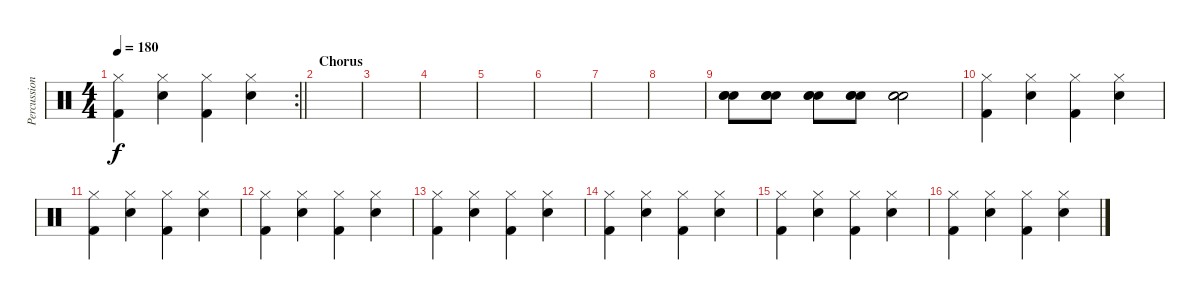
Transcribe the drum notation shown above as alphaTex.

\track ("Percussion" "Percussion") {instrument percussion}
\staff {score}
\articulation defaults
\rc 2
\ts (4 4)
\tempo 180
\clef neutral
\barLineRight lightlight
\ks c
("Hi-Hat (closed)" "Kick (hit) 2").4{dy f} ("Hi-Hat (closed)" "Electric Snare (hit)").4 ("Hi-Hat (closed)" "Kick (hit) 2").4 ("Hi-Hat (closed)" "Electric Snare (hit)").4 |
\section ("" "Chorus")
|
|
|
|
|
|
|
("Electric Snare (hit)" "Electric Snare (hit)" "Electric Snare (hit)").8 ("Electric Snare (hit)" "Electric Snare (hit)" "Electric Snare (hit)").8 ("Electric Snare (hit)" "Electric Snare (hit)" "Electric Snare (hit)").8 ("Electric Snare (hit)" "Electric Snare (hit)" "Electric Snare (hit)").8 ("Electric Snare (hit)" "Electric Snare (hit)" "Electric Snare (hit)").2 |
("Hi-Hat (closed)" "Kick (hit) 2").4 ("Hi-Hat (closed)" "Electric Snare (hit)").4 ("Hi-Hat (closed)" "Kick (hit) 2").4 ("Hi-Hat (closed)" "Electric Snare (hit)").4 |
("Hi-Hat (closed)" "Kick (hit) 2").4 ("Hi-Hat (closed)" "Electric Snare (hit)").4 ("Hi-Hat (closed)" "Kick (hit) 2").4 ("Hi-Hat (closed)" "Electric Snare (hit)").4 |
("Hi-Hat (closed)" "Kick (hit) 2").4 ("Hi-Hat (closed)" "Electric Snare (hit)").4 ("Hi-Hat (closed)" "Kick (hit) 2").4 ("Hi-Hat (closed)" "Electric Snare (hit)").4 |
("Hi-Hat (closed)" "Kick (hit) 2").4 ("Hi-Hat (closed)" "Electric Snare (hit)").4 ("Hi-Hat (closed)" "Kick (hit) 2").4 ("Hi-Hat (closed)" "Electric Snare (hit)").4 |
("Hi-Hat (closed)" "Kick (hit) 2").4 ("Hi-Hat (closed)" "Electric Snare (hit)").4 ("Hi-Hat (closed)" "Kick (hit) 2").4 ("Hi-Hat (closed)" "Electric Snare (hit)").4 |
("Hi-Hat (closed)" "Kick (hit) 2").4 ("Hi-Hat (closed)" "Electric Snare (hit)").4 ("Hi-Hat (closed)" "Kick (hit) 2").4 ("Hi-Hat (closed)" "Electric Snare (hit)").4 |
("Hi-Hat (closed)" "Kick (hit) 2").4 ("Hi-Hat (closed)" "Electric Snare (hit)").4 ("Hi-Hat (closed)" "Kick (hit) 2").4 ("Hi-Hat (closed)" "Electric Snare (hit)").4
